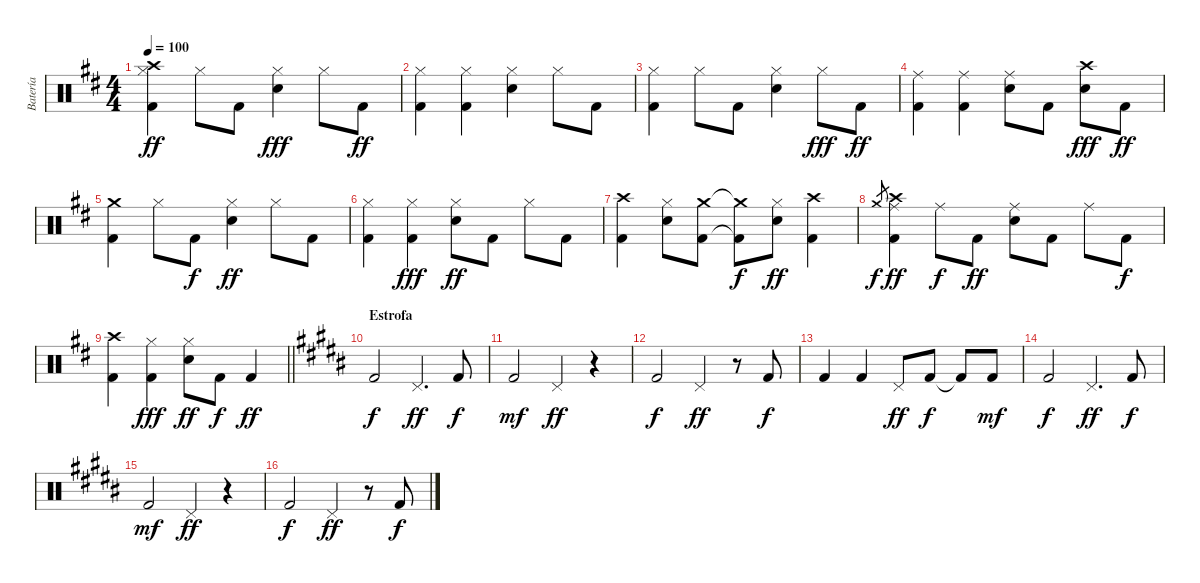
\track ("Batería" "Batería") {instrument percussion}
\staff {score}
\articulation defaults
\ts (4 4)
\tempo 100
\clef neutral
\ks bminor
("Crash high (hit)" "Hi-Hat (closed)" "Kick (hit) 2").4{dy ff} "Hi-Hat (closed)".8 "Kick (hit) 2".8 ("Electric Snare (hit)" "Hi-Hat (closed)").4{dy fff} "Hi-Hat (closed)".8 "Kick (hit) 2".8{dy ff} |
("Hi-Hat (closed)" "Kick (hit) 2").4 ("Hi-Hat (closed)" "Kick (hit) 2").4 ("Hi-Hat (closed)" "Electric Snare (hit)").4 "Hi-Hat (closed)".8 "Kick (hit) 2".8 |
("Hi-Hat (closed)" "Kick (hit) 2").4 "Hi-Hat (closed)".8 "Kick (hit) 2".8 ("Hi-Hat (closed)" "Electric Snare (hit)").4 "Hi-Hat (closed)".8{dy fff} "Kick (hit) 2".8{dy ff} |
("Ride (middle)" "Kick (hit) 2").4 ("Ride (middle)" "Kick (hit) 2").4 ("Ride (middle)" "Electric Snare (hit)").8 "Kick (hit) 2".8 ("Crash high (hit)" "Electric Snare (hit)").8{dy fff} "Kick (hit) 2".8{dy ff} |
("Crash medium (hit)" "Kick (hit) 2").4 "Hi-Hat (closed)".8 "Kick (hit) 2".8{dy f} ("Hi-Hat (closed)" "Electric Snare (hit)").4{dy ff} "Hi-Hat (closed)".8 "Kick (hit) 2".8 |
("Hi-Hat (closed)" "Kick (hit) 2").4 ("Hi-Hat (closed)" "Kick (hit) 2").4{dy fff} ("Hi-Hat (closed)" "Electric Snare (hit)").8{dy ff} "Kick (hit) 2".8 "Hi-Hat (closed)".8 "Kick (hit) 2".8 |
("Crash high (hit)" "Kick (hit) 2").4 ("Hi-Hat (closed)" "Electric Snare (hit)").8 ("Crash medium (hit)" "Kick (hit) 2").8 ("Crash medium (hit)"{t} "Kick (hit) 2"{t}).8{dy f} ("Hi-Hat (closed)" "Electric Snare (hit)").8{dy ff} ("Crash high (hit)" "Kick (hit) 2").4 |
"Crash medium (hit)".8{gr dy f} ("Crash high (hit)" "Ride (middle)" "Kick (hit) 2").4{dy ff} "Ride (middle)".8{dy f} "Kick (hit) 2".8{dy ff} ("Ride (middle)" "Electric Snare (hit)").8 "Kick (hit) 2".8 "Ride (middle)".8 "Kick (hit) 2".8{dy f} |
\barLineRight lightlight
("Crash high (hit)" "Kick (hit) 2").4 ("Hi-Hat (closed)" "Kick (hit) 2").4{dy fff} ("Hi-Hat (closed)" "Electric Snare (hit)").8{dy ff} "Kick (hit) 2".8{dy f} "Kick (hit) 2".4{dy ff} |
\section ("" "Estrofa")
\ks g#minor "Kick (hit) 2".2{dy f} "Pedal Hi-Hat (hit)".4{d dy ff} "Kick (hit) 2".8{dy f}
|
"Kick (hit) 2".2{dy mf} "Pedal Hi-Hat (hit)".4{dy ff} r.4 |
"Kick (hit) 2".2{dy f} "Pedal Hi-Hat (hit)".4{dy ff} r.8 "Kick (hit) 2".8{dy f} |
"Kick (hit) 2".4 "Kick (hit) 2".4 "Pedal Hi-Hat (hit)".8{dy ff} "Kick (hit) 2".8{dy f} "Kick (hit) 2"{t}.8 "Kick (hit) 2".8{dy mf} |
"Kick (hit) 2".2{dy f} "Pedal Hi-Hat (hit)".4{d dy ff} "Kick (hit) 2".8{dy f} |
"Kick (hit) 2".2{dy mf} "Pedal Hi-Hat (hit)".4{dy ff} r.4 |
"Kick (hit) 2".2{dy f} "Pedal Hi-Hat (hit)".4{dy ff} r.8 "Kick (hit) 2".8{dy f}
